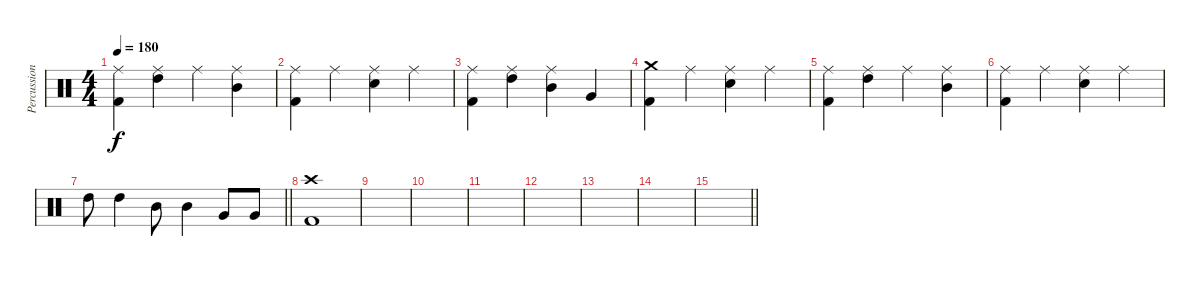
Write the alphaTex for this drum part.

\track ("Percussion" "Percussion") {instrument percussion}
\staff {score}
\articulation defaults
\ts (4 4)
\tempo 180
\clef neutral
\ks c
("Kick (hit) 2" "Ride (middle)").4{dy f} ("High Tom (hit)" "Ride (middle)").4 "Ride (middle)".4 ("Mid Tom (hit)" "Ride (middle)").4 |
("Kick (hit) 2" "Ride (middle)").4 "Ride (middle)".4 ("Snare (hit) 2" "Ride (middle)").4 "Ride (middle)".4 |
("Kick (hit) 2" "Ride (middle)").4 ("High Tom (hit)" "Ride (middle)").4 ("Mid Tom (hit)" "Ride (middle)").4 "Very Low Tom (hit)".4 |
("Kick (hit) 2" "Crash medium (hit)").4 "Ride (middle)".4 ("Snare (hit) 2" "Ride (middle)").4 "Ride (middle)".4 |
("Kick (hit) 2" "Ride (middle)").4 ("High Tom (hit)" "Ride (middle)").4 "Ride (middle)".4 ("Mid Tom (hit)" "Ride (middle)").4 |
("Kick (hit) 2" "Ride (middle)").4 "Ride (middle)".4 ("Snare (hit) 2" "Ride (middle)").4 "Ride (middle)".4 |
\barLineRight lightlight "High Tom (hit)".8 "High Tom (hit)".4 "Mid Tom (hit)".8 "Mid Tom (hit)".4 "Very Low Tom (hit)".8 "Very Low Tom (hit)".8
|
("Crash high (hit)" "Kick (hit) 2").1 |
|
|
|
|
|
|
\barLineRight lightlight
